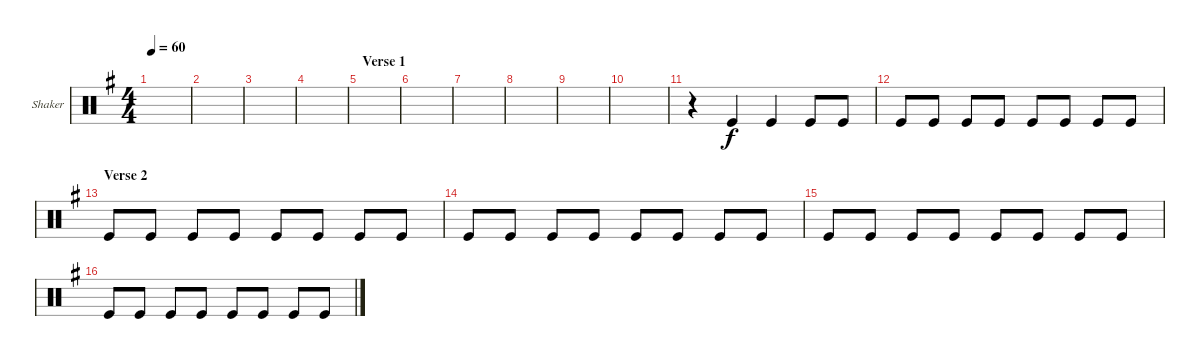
\defaultSystemsLayout 4
\bracketExtendMode groupsimilarinstruments
\firstSystemTrackNameOrientation horizontal
\otherSystemsTrackNameOrientation horizontal
\track ("Shaker" "Shaker") {instrument percussion}
\staff {score}
\articulation defaults
\ts (4 4)
\tempo 60
\clef neutral
\scale
0.333333
\ks g
|
\scale
0.333333 |
\scale
0.333333 |
\scale
0.333333 |
\section ("" "Verse 1")
\scale
0.333333 |
\scale
0.333333 |
\scale
0.333333 |
\scale
0.333333 |
\scale
0.333333 |
\scale
0.333333 |
\scale
0.333333 r.4 "Kick (hit)".4 "Kick (hit)".4 "Kick (hit)".8 "Kick (hit)".8 |
\scale
0.333333 "Kick (hit)".8 "Kick (hit)".8 "Kick (hit)".8 "Kick (hit)".8 "Kick (hit)".8 "Kick (hit)".8 "Kick (hit)".8 "Kick (hit)".8 |
\section ("" "Verse 2")
\scale
0.333333 "Kick (hit)".8 "Kick (hit)".8 "Kick (hit)".8 "Kick (hit)".8 "Kick (hit)".8 "Kick (hit)".8 "Kick (hit)".8 "Kick (hit)".8 |
\scale
0.333333 "Kick (hit)".8 "Kick (hit)".8 "Kick (hit)".8 "Kick (hit)".8 "Kick (hit)".8 "Kick (hit)".8 "Kick (hit)".8 "Kick (hit)".8 |
\scale
0.333333 "Kick (hit)".8 "Kick (hit)".8 "Kick (hit)".8 "Kick (hit)".8 "Kick (hit)".8 "Kick (hit)".8 "Kick (hit)".8 "Kick (hit)".8 |
\scale
0.333333 "Kick (hit)".8 "Kick (hit)".8 "Kick (hit)".8 "Kick (hit)".8 "Kick (hit)".8 "Kick (hit)".8 "Kick (hit)".8 "Kick (hit)".8
